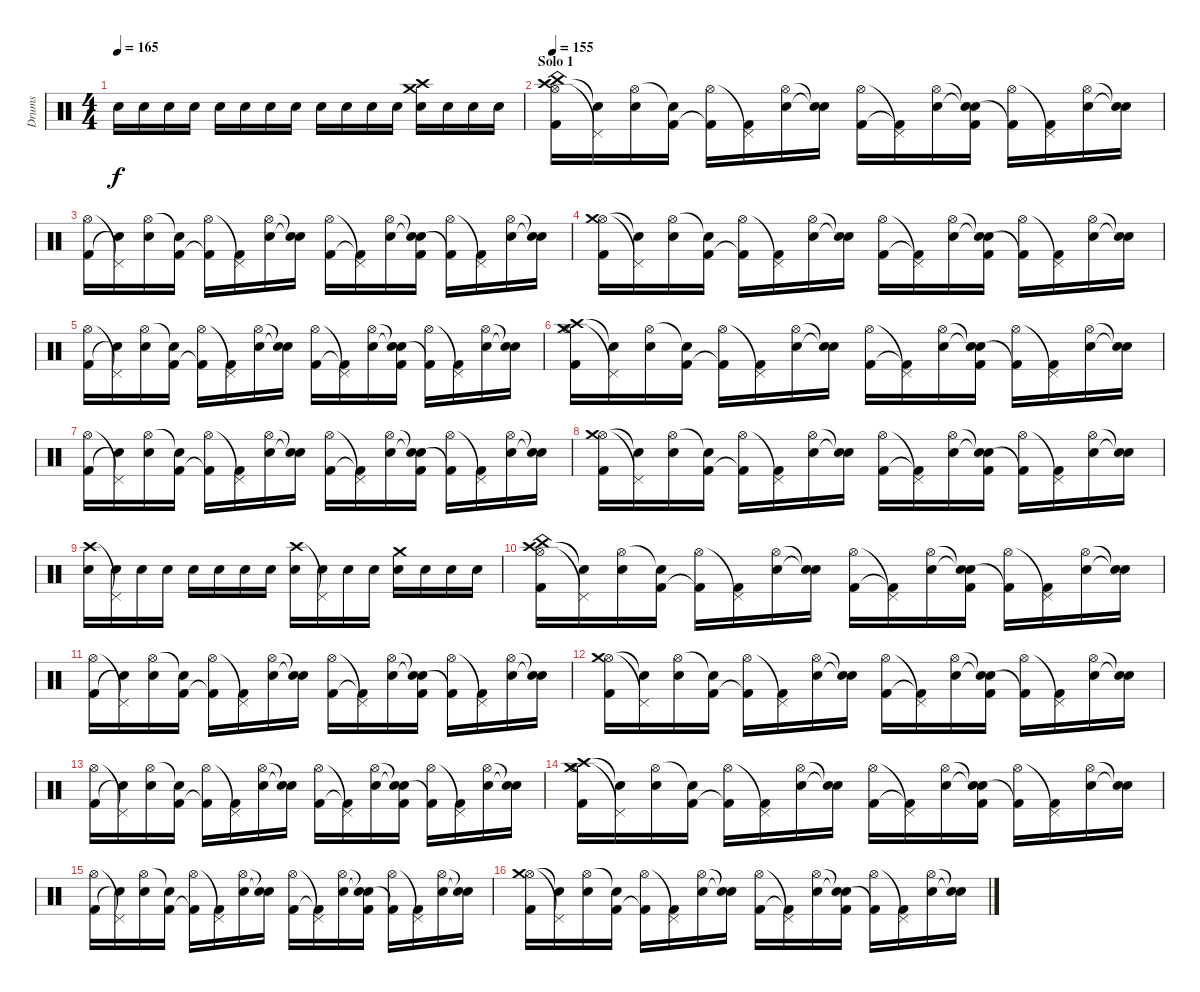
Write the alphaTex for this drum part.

\track ("Drums" "Drums") {instrument percussion}
\staff {score}
\articulation defaults
\ts (4 4)
\tempo 165
\clef neutral
\ks c "Electric Snare (hit)".16{dy f} "Electric Snare (hit)".16 "Electric Snare (hit)".16 "Electric Snare (hit)".16 "Electric Snare (hit)".16 "Electric Snare (hit)".16 "Electric Snare (hit)".16 "Electric Snare (hit)".16 "Electric Snare (hit)".16 "Electric Snare (hit)".16 "Electric Snare (hit)".16 "Electric Snare (hit)".16
("Crash high (hit)" "Crash medium (hit)" "Electric Snare (hit)").16 "Electric Snare (hit)".16 "Electric Snare (hit)".16 "Electric Snare (hit)".16 |
\section ("" "Solo 1")
\tempo 155
("Hi-Hat (open)" "Crash high (hit)" "China (hit)" "Kick (hit) 2").16 ("Pedal Hi-Hat (hit)"{t} "Snare (hit)"{t}).16 ("Hi-Hat (open)" "Electric Snare (hit)").16 ("Snare (hit)"{t} "Kick (hit) 2").16 ("Hi-Hat (open)" "Kick (hit) 2"{t}).16 ("Pedal Hi-Hat (hit)"{t} "Kick (hit) 2").16 ("Hi-Hat (open)" "Electric Snare (hit)").16 ("Snare (hit)"{t} "Electric Snare (hit)"{t}).16 ("Hi-Hat (open)" "Kick (hit) 2").16 ("Pedal Hi-Hat (hit)"{t} "Kick (hit) 2"{t}).16 ("Hi-Hat (open)" "Electric Snare (hit)").16 ("Snare (hit)"{t} "Electric Snare (hit)"{t} "Kick (hit) 2").16 ("Hi-Hat (open)" "Kick (hit) 2"{t}).16 ("Pedal Hi-Hat (hit)"{t} "Kick (hit) 2").16 ("Hi-Hat (open)" "Electric Snare (hit)").16 ("Snare (hit)"{t} "Electric Snare (hit)"{t}).16 |
("Hi-Hat (open)" "Kick (hit) 2").16 ("Pedal Hi-Hat (hit)"{t} "Snare (hit)"{t}).16 ("Hi-Hat (open)" "Electric Snare (hit)").16 ("Snare (hit)"{t} "Kick (hit) 2").16 ("Hi-Hat (open)" "Kick (hit) 2"{t}).16 ("Pedal Hi-Hat (hit)"{t} "Kick (hit) 2").16 ("Hi-Hat (open)" "Electric Snare (hit)").16 ("Snare (hit)"{t} "Electric Snare (hit)"{t}).16 ("Hi-Hat (open)" "Kick (hit) 2").16 ("Pedal Hi-Hat (hit)"{t} "Kick (hit) 2"{t}).16 ("Hi-Hat (open)" "Electric Snare (hit)").16 ("Snare (hit)"{t} "Electric Snare (hit)"{t} "Kick (hit) 2").16 ("Hi-Hat (open)" "Kick (hit) 2"{t}).16 ("Pedal Hi-Hat (hit)"{t} "Kick (hit) 2").16 ("Hi-Hat (open)" "Electric Snare (hit)").16 ("Snare (hit)"{t} "Electric Snare (hit)"{t}).16 |
("Hi-Hat (open)" "Crash medium (hit)" "Kick (hit) 2").16 ("Pedal Hi-Hat (hit)"{t} "Snare (hit)"{t}).16 ("Hi-Hat (open)" "Electric Snare (hit)").16 ("Snare (hit)"{t} "Kick (hit) 2").16 ("Hi-Hat (open)" "Kick (hit) 2"{t}).16 ("Pedal Hi-Hat (hit)"{t} "Kick (hit) 2").16 ("Hi-Hat (open)" "Electric Snare (hit)").16 ("Snare (hit)"{t} "Electric Snare (hit)"{t}).16 ("Hi-Hat (open)" "Kick (hit) 2").16 ("Pedal Hi-Hat (hit)"{t} "Kick (hit) 2"{t}).16 ("Hi-Hat (open)" "Electric Snare (hit)").16 ("Snare (hit)"{t} "Electric Snare (hit)"{t} "Kick (hit) 2").16 ("Hi-Hat (open)" "Kick (hit) 2"{t}).16 ("Pedal Hi-Hat (hit)"{t} "Kick (hit) 2").16 ("Hi-Hat (open)" "Electric Snare (hit)").16 ("Snare (hit)"{t} "Electric Snare (hit)"{t}).16 |
("Hi-Hat (open)" "Kick (hit) 2").16 ("Pedal Hi-Hat (hit)"{t} "Snare (hit)"{t}).16 ("Hi-Hat (open)" "Electric Snare (hit)").16 ("Snare (hit)"{t} "Kick (hit) 2").16 ("Hi-Hat (open)" "Kick (hit) 2"{t}).16 ("Pedal Hi-Hat (hit)"{t} "Kick (hit) 2").16 ("Hi-Hat (open)" "Electric Snare (hit)").16 ("Snare (hit)"{t} "Electric Snare (hit)"{t}).16 ("Hi-Hat (open)" "Kick (hit) 2").16 ("Pedal Hi-Hat (hit)"{t} "Kick (hit) 2"{t}).16 ("Hi-Hat (open)" "Electric Snare (hit)").16 ("Snare (hit)"{t} "Electric Snare (hit)"{t} "Kick (hit) 2").16 ("Hi-Hat (open)" "Kick (hit) 2"{t}).16 ("Pedal Hi-Hat (hit)"{t} "Kick (hit) 2").16 ("Hi-Hat (open)" "Electric Snare (hit)").16 ("Snare (hit)"{t} "Electric Snare (hit)"{t}).16 |
("Hi-Hat (open)" "Crash high (hit)" "Crash medium (hit)" "Kick (hit) 2").16 ("Pedal Hi-Hat (hit)"{t} "Snare (hit)"{t}).16 ("Hi-Hat (open)" "Electric Snare (hit)").16 ("Snare (hit)"{t} "Kick (hit) 2").16 ("Hi-Hat (open)" "Kick (hit) 2"{t}).16 ("Pedal Hi-Hat (hit)"{t} "Kick (hit) 2").16 ("Hi-Hat (open)" "Electric Snare (hit)").16 ("Snare (hit)"{t} "Electric Snare (hit)"{t}).16 ("Hi-Hat (open)" "Kick (hit) 2").16 ("Pedal Hi-Hat (hit)"{t} "Kick (hit) 2"{t}).16 ("Hi-Hat (open)" "Electric Snare (hit)").16 ("Snare (hit)"{t} "Electric Snare (hit)"{t} "Kick (hit) 2").16 ("Hi-Hat (open)" "Kick (hit) 2"{t}).16 ("Pedal Hi-Hat (hit)"{t} "Kick (hit) 2").16 ("Hi-Hat (open)" "Electric Snare (hit)").16 ("Snare (hit)"{t} "Electric Snare (hit)"{t}).16 |
("Hi-Hat (open)" "Kick (hit) 2").16 ("Pedal Hi-Hat (hit)"{t} "Snare (hit)"{t}).16 ("Hi-Hat (open)" "Electric Snare (hit)").16 ("Snare (hit)"{t} "Kick (hit) 2").16 ("Hi-Hat (open)" "Kick (hit) 2"{t}).16 ("Pedal Hi-Hat (hit)"{t} "Kick (hit) 2").16 ("Hi-Hat (open)" "Electric Snare (hit)").16 ("Snare (hit)"{t} "Electric Snare (hit)"{t}).16 ("Hi-Hat (open)" "Kick (hit) 2").16 ("Pedal Hi-Hat (hit)"{t} "Kick (hit) 2"{t}).16 ("Hi-Hat (open)" "Electric Snare (hit)").16 ("Snare (hit)"{t} "Electric Snare (hit)"{t} "Kick (hit) 2").16 ("Hi-Hat (open)" "Kick (hit) 2"{t}).16 ("Pedal Hi-Hat (hit)"{t} "Kick (hit) 2").16 ("Hi-Hat (open)" "Electric Snare (hit)").16 ("Snare (hit)"{t} "Electric Snare (hit)"{t}).16 |
("Hi-Hat (open)" "Crash medium (hit)" "Kick (hit) 2").16 ("Pedal Hi-Hat (hit)"{t} "Snare (hit)"{t}).16 ("Hi-Hat (open)" "Electric Snare (hit)").16 ("Snare (hit)"{t} "Kick (hit) 2").16 ("Hi-Hat (open)" "Kick (hit) 2"{t}).16 ("Pedal Hi-Hat (hit)"{t} "Kick (hit) 2").16 ("Hi-Hat (open)" "Electric Snare (hit)").16 ("Snare (hit)"{t} "Electric Snare (hit)"{t}).16 ("Hi-Hat (open)" "Kick (hit) 2").16 ("Pedal Hi-Hat (hit)"{t} "Kick (hit) 2"{t}).16 ("Hi-Hat (open)" "Electric Snare (hit)").16 ("Snare (hit)"{t} "Electric Snare (hit)"{t} "Kick (hit) 2").16 ("Hi-Hat (open)" "Kick (hit) 2"{t}).16 ("Pedal Hi-Hat (hit)"{t} "Kick (hit) 2").16 ("Hi-Hat (open)" "Electric Snare (hit)").16 ("Snare (hit)"{t} "Electric Snare (hit)"{t}).16 |
("Crash high (hit)" "Snare (hit) 2").16 ("Pedal Hi-Hat (hit)"{t} "Snare (hit) 2").16 "Electric Snare (hit)".16 "Electric Snare (hit)".16 "Electric Snare (hit)".16 "Electric Snare (hit)".16 "Electric Snare (hit)".16 "Snare (hit) 2".16 ("Crash high (hit)" "Snare (hit) 2").16 ("Pedal Hi-Hat (hit)"{t} "Snare (hit) 2").16 "Electric Snare (hit)".16 "Electric Snare (hit)".16 ("Crash medium (hit)" "Electric Snare (hit)").16 "Electric Snare (hit)".16 "Electric Snare (hit)".16 "Electric Snare (hit)".16 |
("Hi-Hat (open)" "Crash high (hit)" "China (hit)" "Kick (hit) 2").16 ("Pedal Hi-Hat (hit)"{t} "Snare (hit)"{t}).16 ("Hi-Hat (open)" "Electric Snare (hit)").16 ("Snare (hit)"{t} "Kick (hit) 2").16 ("Hi-Hat (open)" "Kick (hit) 2"{t}).16 ("Pedal Hi-Hat (hit)"{t} "Kick (hit) 2").16 ("Hi-Hat (open)" "Electric Snare (hit)").16 ("Snare (hit)"{t} "Electric Snare (hit)"{t}).16 ("Hi-Hat (open)" "Kick (hit) 2").16 ("Pedal Hi-Hat (hit)"{t} "Kick (hit) 2"{t}).16 ("Hi-Hat (open)" "Electric Snare (hit)").16 ("Snare (hit)"{t} "Electric Snare (hit)"{t} "Kick (hit) 2").16 ("Hi-Hat (open)" "Kick (hit) 2"{t}).16 ("Pedal Hi-Hat (hit)"{t} "Kick (hit) 2").16 ("Hi-Hat (open)" "Electric Snare (hit)").16 ("Snare (hit)"{t} "Electric Snare (hit)"{t}).16 |
("Hi-Hat (open)" "Kick (hit) 2").16 ("Pedal Hi-Hat (hit)"{t} "Snare (hit)"{t}).16 ("Hi-Hat (open)" "Electric Snare (hit)").16 ("Snare (hit)"{t} "Kick (hit) 2").16 ("Hi-Hat (open)" "Kick (hit) 2"{t}).16 ("Pedal Hi-Hat (hit)"{t} "Kick (hit) 2").16 ("Hi-Hat (open)" "Electric Snare (hit)").16 ("Snare (hit)"{t} "Electric Snare (hit)"{t}).16 ("Hi-Hat (open)" "Kick (hit) 2").16 ("Pedal Hi-Hat (hit)"{t} "Kick (hit) 2"{t}).16 ("Hi-Hat (open)" "Electric Snare (hit)").16 ("Snare (hit)"{t} "Electric Snare (hit)"{t} "Kick (hit) 2").16 ("Hi-Hat (open)" "Kick (hit) 2"{t}).16 ("Pedal Hi-Hat (hit)"{t} "Kick (hit) 2").16 ("Hi-Hat (open)" "Electric Snare (hit)").16 ("Snare (hit)"{t} "Electric Snare (hit)"{t}).16 |
("Hi-Hat (open)" "Crash medium (hit)" "Kick (hit) 2").16 ("Pedal Hi-Hat (hit)"{t} "Snare (hit)"{t}).16 ("Hi-Hat (open)" "Electric Snare (hit)").16 ("Snare (hit)"{t} "Kick (hit) 2").16 ("Hi-Hat (open)" "Kick (hit) 2"{t}).16 ("Pedal Hi-Hat (hit)"{t} "Kick (hit) 2").16 ("Hi-Hat (open)" "Electric Snare (hit)").16 ("Snare (hit)"{t} "Electric Snare (hit)"{t}).16 ("Hi-Hat (open)" "Kick (hit) 2").16 ("Pedal Hi-Hat (hit)"{t} "Kick (hit) 2"{t}).16 ("Hi-Hat (open)" "Electric Snare (hit)").16 ("Snare (hit)"{t} "Electric Snare (hit)"{t} "Kick (hit) 2").16 ("Hi-Hat (open)" "Kick (hit) 2"{t}).16 ("Pedal Hi-Hat (hit)"{t} "Kick (hit) 2").16 ("Hi-Hat (open)" "Electric Snare (hit)").16 ("Snare (hit)"{t} "Electric Snare (hit)"{t}).16 |
("Hi-Hat (open)" "Kick (hit) 2").16 ("Pedal Hi-Hat (hit)"{t} "Snare (hit)"{t}).16 ("Hi-Hat (open)" "Electric Snare (hit)").16 ("Snare (hit)"{t} "Kick (hit) 2").16 ("Hi-Hat (open)" "Kick (hit) 2"{t}).16 ("Pedal Hi-Hat (hit)"{t} "Kick (hit) 2").16 ("Hi-Hat (open)" "Electric Snare (hit)").16 ("Snare (hit)"{t} "Electric Snare (hit)"{t}).16 ("Hi-Hat (open)" "Kick (hit) 2").16 ("Pedal Hi-Hat (hit)"{t} "Kick (hit) 2"{t}).16 ("Hi-Hat (open)" "Electric Snare (hit)").16 ("Snare (hit)"{t} "Electric Snare (hit)"{t} "Kick (hit) 2").16 ("Hi-Hat (open)" "Kick (hit) 2"{t}).16 ("Pedal Hi-Hat (hit)"{t} "Kick (hit) 2").16 ("Hi-Hat (open)" "Electric Snare (hit)").16 ("Snare (hit)"{t} "Electric Snare (hit)"{t}).16 |
("Hi-Hat (open)" "Crash high (hit)" "Crash medium (hit)" "Kick (hit) 2").16 ("Pedal Hi-Hat (hit)"{t} "Snare (hit)"{t}).16 ("Hi-Hat (open)" "Electric Snare (hit)").16 ("Snare (hit)"{t} "Kick (hit) 2").16 ("Hi-Hat (open)" "Kick (hit) 2"{t}).16 ("Pedal Hi-Hat (hit)"{t} "Kick (hit) 2").16 ("Hi-Hat (open)" "Electric Snare (hit)").16 ("Snare (hit)"{t} "Electric Snare (hit)"{t}).16 ("Hi-Hat (open)" "Kick (hit) 2").16 ("Pedal Hi-Hat (hit)"{t} "Kick (hit) 2"{t}).16 ("Hi-Hat (open)" "Electric Snare (hit)").16 ("Snare (hit)"{t} "Electric Snare (hit)"{t} "Kick (hit) 2").16 ("Hi-Hat (open)" "Kick (hit) 2"{t}).16 ("Pedal Hi-Hat (hit)"{t} "Kick (hit) 2").16 ("Hi-Hat (open)" "Electric Snare (hit)").16 ("Snare (hit)"{t} "Electric Snare (hit)"{t}).16 |
("Hi-Hat (open)" "Kick (hit) 2").16 ("Pedal Hi-Hat (hit)"{t} "Snare (hit)"{t}).16 ("Hi-Hat (open)" "Electric Snare (hit)").16 ("Snare (hit)"{t} "Kick (hit) 2").16 ("Hi-Hat (open)" "Kick (hit) 2"{t}).16 ("Pedal Hi-Hat (hit)"{t} "Kick (hit) 2").16 ("Hi-Hat (open)" "Electric Snare (hit)").16 ("Snare (hit)"{t} "Electric Snare (hit)"{t}).16 ("Hi-Hat (open)" "Kick (hit) 2").16 ("Pedal Hi-Hat (hit)"{t} "Kick (hit) 2"{t}).16 ("Hi-Hat (open)" "Electric Snare (hit)").16 ("Snare (hit)"{t} "Electric Snare (hit)"{t} "Kick (hit) 2").16 ("Hi-Hat (open)" "Kick (hit) 2"{t}).16 ("Pedal Hi-Hat (hit)"{t} "Kick (hit) 2").16 ("Hi-Hat (open)" "Electric Snare (hit)").16 ("Snare (hit)"{t} "Electric Snare (hit)"{t}).16 |
("Hi-Hat (open)" "Crash medium (hit)" "Kick (hit) 2").16 ("Pedal Hi-Hat (hit)"{t} "Snare (hit)"{t}).16 ("Hi-Hat (open)" "Electric Snare (hit)").16 ("Snare (hit)"{t} "Kick (hit) 2").16 ("Hi-Hat (open)" "Kick (hit) 2"{t}).16 ("Pedal Hi-Hat (hit)"{t} "Kick (hit) 2").16 ("Hi-Hat (open)" "Electric Snare (hit)").16 ("Snare (hit)"{t} "Electric Snare (hit)"{t}).16 ("Hi-Hat (open)" "Kick (hit) 2").16 ("Pedal Hi-Hat (hit)"{t} "Kick (hit) 2"{t}).16 ("Hi-Hat (open)" "Electric Snare (hit)").16 ("Snare (hit)"{t} "Electric Snare (hit)"{t} "Kick (hit) 2").16 ("Hi-Hat (open)" "Kick (hit) 2"{t}).16 ("Pedal Hi-Hat (hit)"{t} "Kick (hit) 2").16 ("Hi-Hat (open)" "Electric Snare (hit)").16 ("Snare (hit)"{t} "Electric Snare (hit)"{t}).16
